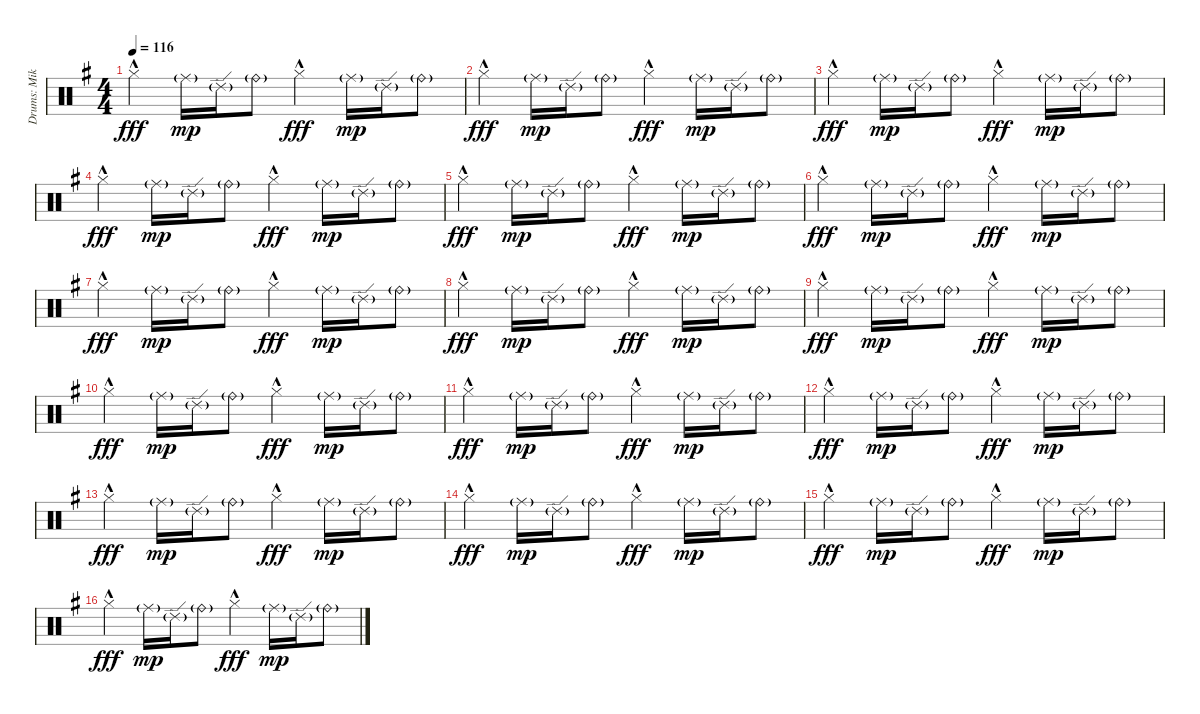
\track ("Drums: Mike" "Drums: Mik") {instrument percussion}
\staff {score}
\articulation defaults
\ts (4 4)
\tempo 116
\clef neutral
\ks g "Hi-Hat (closed)"{hac}.4{dy fff} "Ride (middle)"{g}.16{dy mp} "Ride (edge) 2"{g}.16 "Ride (bell)"{g}.8 "Hi-Hat (closed)"{hac}.4{dy fff} "Ride (middle)"{g}.16{dy mp} "Ride (edge) 2"{g}.16 "Ride (bell)"{g}.8
|
"Hi-Hat (closed)"{hac}.4{dy fff} "Ride (middle)"{g}.16{dy mp} "Ride (edge) 2"{g}.16 "Ride (bell)"{g}.8 "Hi-Hat (closed)"{hac}.4{dy fff} "Ride (middle)"{g}.16{dy mp} "Ride (edge) 2"{g}.16 "Ride (bell)"{g}.8 |
"Hi-Hat (closed)"{hac}.4{dy fff} "Ride (middle)"{g}.16{dy mp} "Ride (edge) 2"{g}.16 "Ride (bell)"{g}.8 "Hi-Hat (closed)"{hac}.4{dy fff} "Ride (middle)"{g}.16{dy mp} "Ride (edge) 2"{g}.16 "Ride (bell)"{g}.8 |
"Hi-Hat (closed)"{hac}.4{dy fff} "Ride (middle)"{g}.16{dy mp} "Ride (edge) 2"{g}.16 "Ride (bell)"{g}.8 "Hi-Hat (closed)"{hac}.4{dy fff} "Ride (middle)"{g}.16{dy mp} "Ride (edge) 2"{g}.16 "Ride (bell)"{g}.8 |
"Hi-Hat (closed)"{hac}.4{dy fff} "Ride (middle)"{g}.16{dy mp} "Ride (edge) 2"{g}.16 "Ride (bell)"{g}.8 "Hi-Hat (closed)"{hac}.4{dy fff} "Ride (middle)"{g}.16{dy mp} "Ride (edge) 2"{g}.16 "Ride (bell)"{g}.8 |
"Hi-Hat (closed)"{hac}.4{dy fff} "Ride (middle)"{g}.16{dy mp} "Ride (edge) 2"{g}.16 "Ride (bell)"{g}.8 "Hi-Hat (closed)"{hac}.4{dy fff} "Ride (middle)"{g}.16{dy mp} "Ride (edge) 2"{g}.16 "Ride (bell)"{g}.8 |
"Hi-Hat (closed)"{hac}.4{dy fff} "Ride (middle)"{g}.16{dy mp} "Ride (edge) 2"{g}.16 "Ride (bell)"{g}.8 "Hi-Hat (closed)"{hac}.4{dy fff} "Ride (middle)"{g}.16{dy mp} "Ride (edge) 2"{g}.16 "Ride (bell)"{g}.8 |
"Hi-Hat (closed)"{hac}.4{dy fff} "Ride (middle)"{g}.16{dy mp} "Ride (edge) 2"{g}.16 "Ride (bell)"{g}.8 "Hi-Hat (closed)"{hac}.4{dy fff} "Ride (middle)"{g}.16{dy mp} "Ride (edge) 2"{g}.16 "Ride (bell)"{g}.8 |
"Hi-Hat (closed)"{hac}.4{dy fff} "Ride (middle)"{g}.16{dy mp} "Ride (edge) 2"{g}.16 "Ride (bell)"{g}.8 "Hi-Hat (closed)"{hac}.4{dy fff} "Ride (middle)"{g}.16{dy mp} "Ride (edge) 2"{g}.16 "Ride (bell)"{g}.8 |
"Hi-Hat (closed)"{hac}.4{dy fff} "Ride (middle)"{g}.16{dy mp} "Ride (edge) 2"{g}.16 "Ride (bell)"{g}.8 "Hi-Hat (closed)"{hac}.4{dy fff} "Ride (middle)"{g}.16{dy mp} "Ride (edge) 2"{g}.16 "Ride (bell)"{g}.8 |
"Hi-Hat (closed)"{hac}.4{dy fff} "Ride (middle)"{g}.16{dy mp} "Ride (edge) 2"{g}.16 "Ride (bell)"{g}.8 "Hi-Hat (closed)"{hac}.4{dy fff} "Ride (middle)"{g}.16{dy mp} "Ride (edge) 2"{g}.16 "Ride (bell)"{g}.8 |
"Hi-Hat (closed)"{hac}.4{dy fff} "Ride (middle)"{g}.16{dy mp} "Ride (edge) 2"{g}.16 "Ride (bell)"{g}.8 "Hi-Hat (closed)"{hac}.4{dy fff} "Ride (middle)"{g}.16{dy mp} "Ride (edge) 2"{g}.16 "Ride (bell)"{g}.8 |
"Hi-Hat (closed)"{hac}.4{dy fff} "Ride (middle)"{g}.16{dy mp} "Ride (edge) 2"{g}.16 "Ride (bell)"{g}.8 "Hi-Hat (closed)"{hac}.4{dy fff} "Ride (middle)"{g}.16{dy mp} "Ride (edge) 2"{g}.16 "Ride (bell)"{g}.8 |
"Hi-Hat (closed)"{hac}.4{dy fff} "Ride (middle)"{g}.16{dy mp} "Ride (edge) 2"{g}.16 "Ride (bell)"{g}.8 "Hi-Hat (closed)"{hac}.4{dy fff} "Ride (middle)"{g}.16{dy mp} "Ride (edge) 2"{g}.16 "Ride (bell)"{g}.8 |
"Hi-Hat (closed)"{hac}.4{dy fff} "Ride (middle)"{g}.16{dy mp} "Ride (edge) 2"{g}.16 "Ride (bell)"{g}.8 "Hi-Hat (closed)"{hac}.4{dy fff} "Ride (middle)"{g}.16{dy mp} "Ride (edge) 2"{g}.16 "Ride (bell)"{g}.8 |
"Hi-Hat (closed)"{hac}.4{dy fff} "Ride (middle)"{g}.16{dy mp} "Ride (edge) 2"{g}.16 "Ride (bell)"{g}.8 "Hi-Hat (closed)"{hac}.4{dy fff} "Ride (middle)"{g}.16{dy mp} "Ride (edge) 2"{g}.16 "Ride (bell)"{g}.8
